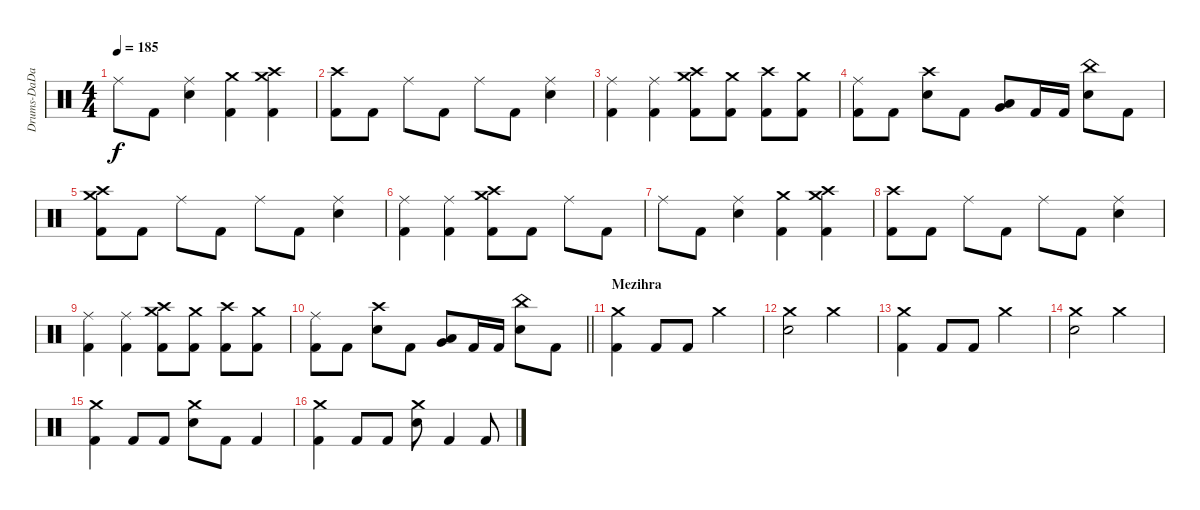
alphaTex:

\track ("Drums-DaDa" "Drums-DaDa") {instrument percussion}
\staff {score}
\articulation defaults
\ts (4 4)
\tempo 185
\clef neutral
\ks c "Ride (middle)".8{dy f} "Kick (hit) 2".8
("Ride (middle)" "Electric Snare (hit)").4 ("Crash medium (hit)" "Kick (hit) 2").4 ("Crash medium (hit)" "Crash high (hit)" "Kick (hit) 2").4 |
("Crash high (hit)" "Kick (hit) 2").8 "Kick (hit) 2".8 "Ride (middle)".8 "Kick (hit) 2".8 "Ride (middle)".8 "Kick (hit) 2".8 ("Ride (middle)" "Electric Snare (hit)").4 |
("Ride (middle)" "Kick (hit) 2").4 ("Ride (middle)" "Kick (hit) 2").4 ("Crash medium (hit)" "Crash high (hit)" "Kick (hit) 2").8 ("Crash medium (hit)" "Kick (hit) 2").8 ("Crash high (hit)" "Kick (hit) 2").8 ("Crash medium (hit)" "Kick (hit) 2").8 |
("Ride (middle)" "Kick (hit) 2").8 "Kick (hit) 2".8 ("Crash high (hit)" "Electric Snare (hit)").8 "Kick (hit) 2".8 ("Low Tom (hit)" "Very Low Tom (hit)").8 "Kick (hit) 2".16 "Kick (hit) 2".16 ("China (hit)" "Electric Snare (hit)").8 "Kick (hit) 2".8 |
("Crash medium (hit)" "Crash high (hit)" "Kick (hit) 2").8 "Kick (hit) 2".8 "Ride (middle)".8 "Kick (hit) 2".8 "Ride (middle)".8 "Kick (hit) 2".8 ("Ride (middle)" "Electric Snare (hit)").4 |
("Ride (middle)" "Kick (hit) 2").4 ("Ride (middle)" "Kick (hit) 2").4 ("Crash medium (hit)" "Crash high (hit)" "Kick (hit) 2").8 "Kick (hit) 2".8 "Ride (middle)".8 "Kick (hit) 2".8 |
"Ride (middle)".8 "Kick (hit) 2".8 ("Ride (middle)" "Electric Snare (hit)").4 ("Crash medium (hit)" "Kick (hit) 2").4 ("Crash medium (hit)" "Crash high (hit)" "Kick (hit) 2").4 |
("Crash high (hit)" "Kick (hit) 2").8 "Kick (hit) 2".8 "Ride (middle)".8 "Kick (hit) 2".8 "Ride (middle)".8 "Kick (hit) 2".8 ("Ride (middle)" "Electric Snare (hit)").4 |
("Ride (middle)" "Kick (hit) 2").4 ("Ride (middle)" "Kick (hit) 2").4 ("Crash medium (hit)" "Crash high (hit)" "Kick (hit) 2").8 ("Crash medium (hit)" "Kick (hit) 2").8 ("Crash high (hit)" "Kick (hit) 2").8 ("Crash medium (hit)" "Kick (hit) 2").8 |
\barLineRight lightlight
("Ride (middle)" "Kick (hit) 2").8 "Kick (hit) 2".8 ("Crash high (hit)" "Electric Snare (hit)").8 "Kick (hit) 2".8 ("Low Tom (hit)" "Very Low Tom (hit)").8 "Kick (hit) 2".16 "Kick (hit) 2".16 ("China (hit)" "Electric Snare (hit)").8 "Kick (hit) 2".8 |
\section ("" "Mezihra")
("Crash medium (hit)" "Kick (hit) 2").4 "Kick (hit) 2".8 "Kick (hit) 2".8 "Crash medium (hit)".2 |
("Crash medium (hit)" "Electric Snare (hit)").2 "Crash medium (hit)".2 |
("Crash medium (hit)" "Kick (hit) 2").4 "Kick (hit) 2".8 "Kick (hit) 2".8 "Crash medium (hit)".2 |
("Crash medium (hit)" "Electric Snare (hit)").2 "Crash medium (hit)".2 |
("Crash medium (hit)" "Kick (hit) 2").4 "Kick (hit) 2".8 "Kick (hit) 2".8 ("Crash medium (hit)" "Electric Snare (hit)").8 "Kick (hit) 2".8 "Kick (hit) 2".4 |
("Crash medium (hit)" "Kick (hit) 2").4 "Kick (hit) 2".8 "Kick (hit) 2".8 ("Crash medium (hit)" "Electric Snare (hit)").8 "Kick (hit) 2".4 "Kick (hit) 2".8
